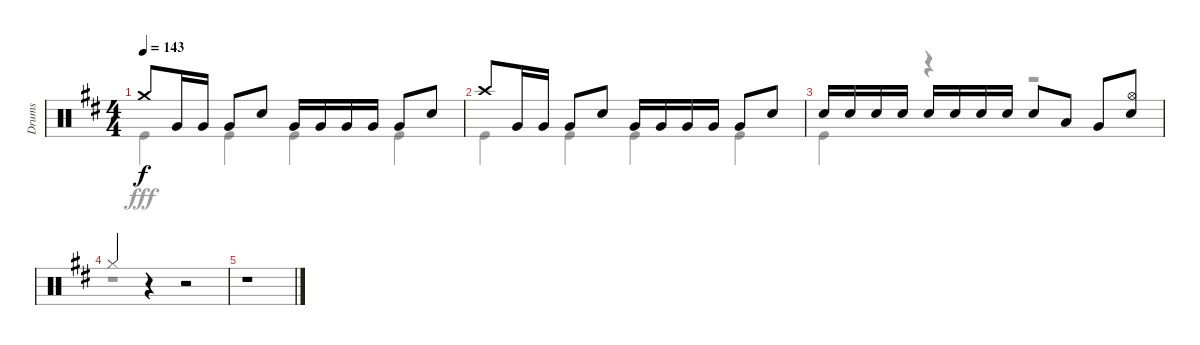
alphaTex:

\track ("Drums" "Drums") {instrument percussion}
\staff {score}
\articulation defaults
\voice
\ts (4 4)
\tempo 143
\clef neutral
\ks d "Crash medium (hit)".8{dy f} "Very Low Tom (hit)".16 "Very Low Tom (hit)".16 "Very Low Tom (hit)".8 "Snare (hit) 2".8 "Very Low Tom (hit)".16 "Very Low Tom (hit)".16 "Very Low Tom (hit)".16 "Very Low Tom (hit)".16 "Very Low Tom (hit)".8 "Snare (hit) 2".8
|
"Crash high (hit)".8 "Very Low Tom (hit)".16 "Very Low Tom (hit)".16 "Very Low Tom (hit)".8 "Snare (hit) 2".8 "Very Low Tom (hit)".16 "Very Low Tom (hit)".16 "Very Low Tom (hit)".16 "Very Low Tom (hit)".16 "Very Low Tom (hit)".8 "Snare (hit) 2".8 |
"Snare (hit) 2".16 "Snare (hit) 2".16 "Snare (hit) 2".16 "Snare (hit) 2".16 "Snare (hit) 2".16 "Snare (hit) 2".16 "Snare (hit) 2".16 "Snare (hit) 2".16 "Snare (hit) 2".8 "Low Tom (hit)".8 "Very Low Tom (hit)".8 ("Hi-Hat (open)" "Snare (hit) 2").8 |
"Hi-Hat (closed)".4 r.4 r.2 |
r.1
\voice
\clef neutral
\ottava regular
\simile none
\ks d "Kick (hit)".4{dy fff} "Kick (hit)".4 "Kick (hit)".4 "Kick (hit)".4
|
"Kick (hit)".4 "Kick (hit)".4 "Kick (hit)".4 "Kick (hit)".4 |
"Kick (hit)".4 r.4 r.2 |
r.1 |
r.1
